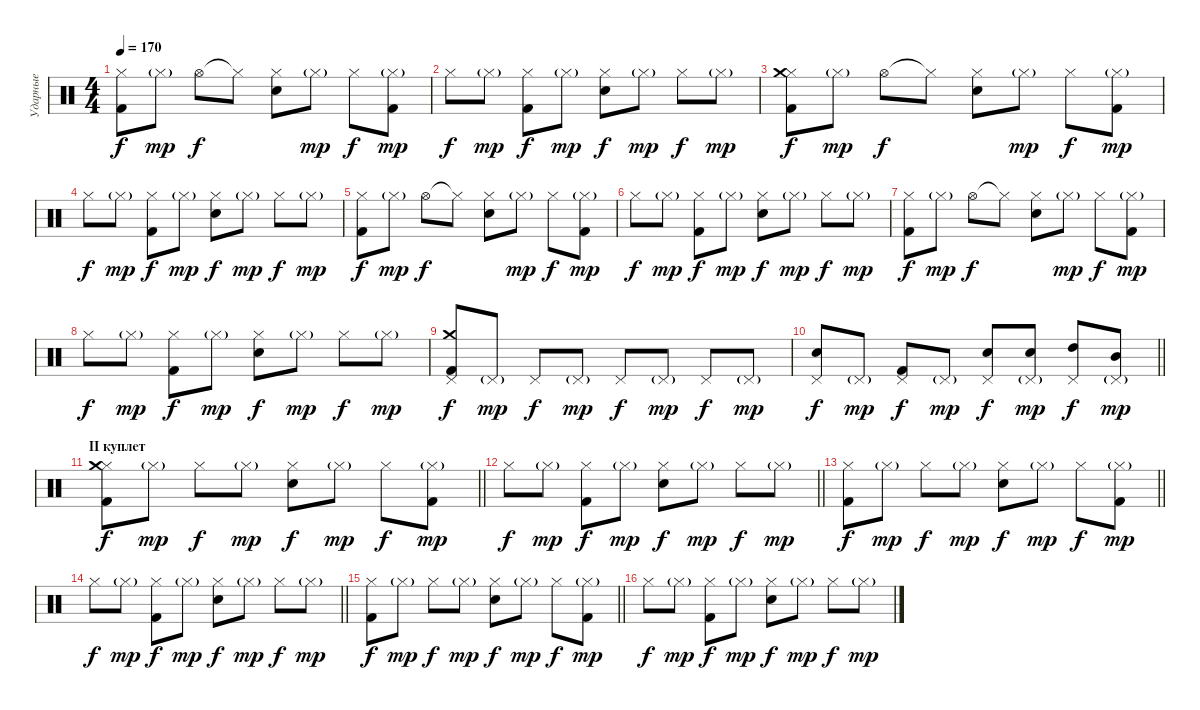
\track ("Ударные" "Ударные") {instrument percussion}
\staff {score}
\articulation defaults
\ts (4 4)
\tempo 170
\clef neutral
\ks c
("Kick (hit) 2" "Hi-Hat (closed)").8{dy f} "Hi-Hat (closed)"{g}.8{dy mp} "Hi-Hat (open)".8{dy f} "Hi-Hat (closed)"{t}.8 ("Electric Snare (hit)" "Hi-Hat (closed)").8 "Hi-Hat (closed)"{g}.8{dy mp} "Hi-Hat (closed)".8{dy f} ("Kick (hit) 2" "Hi-Hat (closed)"{g}).8{dy mp} |
"Hi-Hat (closed)".8{dy f} "Hi-Hat (closed)"{g}.8{dy mp} ("Kick (hit) 2" "Hi-Hat (closed)").8{dy f} "Hi-Hat (closed)"{g}.8{dy mp} ("Electric Snare (hit)" "Hi-Hat (closed)").8{dy f} "Hi-Hat (closed)"{g}.8{dy mp} "Hi-Hat (closed)".8{dy f} "Hi-Hat (closed)"{g}.8{dy mp} |
("Kick (hit) 2" "Hi-Hat (closed)" "Crash medium (hit)").8{dy f} "Hi-Hat (closed)"{g}.8{dy mp} "Hi-Hat (open)".8{dy f} "Hi-Hat (closed)"{t}.8 ("Electric Snare (hit)" "Hi-Hat (closed)").8 "Hi-Hat (closed)"{g}.8{dy mp} "Hi-Hat (closed)".8{dy f} ("Kick (hit) 2" "Hi-Hat (closed)"{g}).8{dy mp} |
"Hi-Hat (closed)".8{dy f} "Hi-Hat (closed)"{g}.8{dy mp} ("Kick (hit) 2" "Hi-Hat (closed)").8{dy f} "Hi-Hat (closed)"{g}.8{dy mp} ("Electric Snare (hit)" "Hi-Hat (closed)").8{dy f} "Hi-Hat (closed)"{g}.8{dy mp} "Hi-Hat (closed)".8{dy f} "Hi-Hat (closed)"{g}.8{dy mp} |
("Kick (hit) 2" "Hi-Hat (closed)").8{dy f} "Hi-Hat (closed)"{g}.8{dy mp} "Hi-Hat (open)".8{dy f} "Hi-Hat (closed)"{t}.8 ("Electric Snare (hit)" "Hi-Hat (closed)").8 "Hi-Hat (closed)"{g}.8{dy mp} "Hi-Hat (closed)".8{dy f} ("Kick (hit) 2" "Hi-Hat (closed)"{g}).8{dy mp} |
"Hi-Hat (closed)".8{dy f} "Hi-Hat (closed)"{g}.8{dy mp} ("Kick (hit) 2" "Hi-Hat (closed)").8{dy f} "Hi-Hat (closed)"{g}.8{dy mp} ("Electric Snare (hit)" "Hi-Hat (closed)").8{dy f} "Hi-Hat (closed)"{g}.8{dy mp} "Hi-Hat (closed)".8{dy f} "Hi-Hat (closed)"{g}.8{dy mp} |
("Kick (hit) 2" "Hi-Hat (closed)").8{dy f} "Hi-Hat (closed)"{g}.8{dy mp} "Hi-Hat (open)".8{dy f} "Hi-Hat (closed)"{t}.8 ("Electric Snare (hit)" "Hi-Hat (closed)").8 "Hi-Hat (closed)"{g}.8{dy mp} "Hi-Hat (closed)".8{dy f} ("Kick (hit) 2" "Hi-Hat (closed)"{g}).8{dy mp} |
"Hi-Hat (closed)".8{dy f} "Hi-Hat (closed)"{g}.8{dy mp} ("Kick (hit) 2" "Hi-Hat (closed)").8{dy f} "Hi-Hat (closed)"{g}.8{dy mp} ("Electric Snare (hit)" "Hi-Hat (closed)").8{dy f} "Hi-Hat (closed)"{g}.8{dy mp} "Hi-Hat (closed)".8{dy f} "Hi-Hat (closed)"{g}.8{dy mp} |
("Pedal Hi-Hat (hit)" "Crash medium (hit)" "Kick (hit) 2").8{dy f} "Pedal Hi-Hat (hit)"{g}.8{dy mp} "Pedal Hi-Hat (hit)".8{dy f} "Pedal Hi-Hat (hit)"{g}.8{dy mp} "Pedal Hi-Hat (hit)".8{dy f} "Pedal Hi-Hat (hit)"{g}.8{dy mp} "Pedal Hi-Hat (hit)".8{dy f} "Pedal Hi-Hat (hit)"{g}.8{dy mp} |
\barLineRight lightlight
("Pedal Hi-Hat (hit)" "Electric Snare (hit)").8{dy f} "Pedal Hi-Hat (hit)"{g}.8{dy mp} ("Pedal Hi-Hat (hit)" "Kick (hit) 2").8{dy f} "Pedal Hi-Hat (hit)"{g}.8{dy mp} ("Pedal Hi-Hat (hit)" "Electric Snare (hit)").8{dy f} ("Pedal Hi-Hat (hit)"{g} "Electric Snare (hit)").8{dy mp} ("Pedal Hi-Hat (hit)" "High Tom (hit)").8{dy f} ("Pedal Hi-Hat (hit)"{g} "Mid Tom (hit)").8{dy mp} |
\section ("" "II куплет")
\barLineRight lightlight
("Kick (hit) 2" "Hi-Hat (closed)" "Crash medium (hit)").8{dy f} "Hi-Hat (closed)"{g}.8{dy mp} "Hi-Hat (closed)".8{dy f} "Hi-Hat (closed)"{g}.8{dy mp} ("Electric Snare (hit)" "Hi-Hat (closed)").8{dy f} "Hi-Hat (closed)"{g}.8{dy mp} "Hi-Hat (closed)".8{dy f} ("Kick (hit) 2" "Hi-Hat (closed)"{g}).8{dy mp} |
\barLineRight lightlight "Hi-Hat (closed)".8{dy f} "Hi-Hat (closed)"{g}.8{dy mp}
("Kick (hit) 2" "Hi-Hat (closed)").8{dy f} "Hi-Hat (closed)"{g}.8{dy mp} ("Electric Snare (hit)" "Hi-Hat (closed)").8{dy f} "Hi-Hat (closed)"{g}.8{dy mp} "Hi-Hat (closed)".8{dy f} "Hi-Hat (closed)"{g}.8{dy mp} |
\barLineRight lightlight
("Kick (hit) 2" "Hi-Hat (closed)").8{dy f} "Hi-Hat (closed)"{g}.8{dy mp} "Hi-Hat (closed)".8{dy f} "Hi-Hat (closed)"{g}.8{dy mp} ("Electric Snare (hit)" "Hi-Hat (closed)").8{dy f} "Hi-Hat (closed)"{g}.8{dy mp} "Hi-Hat (closed)".8{dy f} ("Kick (hit) 2" "Hi-Hat (closed)"{g}).8{dy mp} |
\barLineRight lightlight "Hi-Hat (closed)".8{dy f} "Hi-Hat (closed)"{g}.8{dy mp}
("Kick (hit) 2" "Hi-Hat (closed)").8{dy f} "Hi-Hat (closed)"{g}.8{dy mp} ("Electric Snare (hit)" "Hi-Hat (closed)").8{dy f} "Hi-Hat (closed)"{g}.8{dy mp} "Hi-Hat (closed)".8{dy f} "Hi-Hat (closed)"{g}.8{dy mp} |
\barLineRight lightlight
("Kick (hit) 2" "Hi-Hat (closed)").8{dy f} "Hi-Hat (closed)"{g}.8{dy mp} "Hi-Hat (closed)".8{dy f} "Hi-Hat (closed)"{g}.8{dy mp} ("Electric Snare (hit)" "Hi-Hat (closed)").8{dy f} "Hi-Hat (closed)"{g}.8{dy mp} "Hi-Hat (closed)".8{dy f} ("Kick (hit) 2" "Hi-Hat (closed)"{g}).8{dy mp} |
"Hi-Hat (closed)".8{dy f} "Hi-Hat (closed)"{g}.8{dy mp} ("Kick (hit) 2" "Hi-Hat (closed)").8{dy f} "Hi-Hat (closed)"{g}.8{dy mp} ("Electric Snare (hit)" "Hi-Hat (closed)").8{dy f} "Hi-Hat (closed)"{g}.8{dy mp} "Hi-Hat (closed)".8{dy f} "Hi-Hat (closed)"{g}.8{dy mp}
